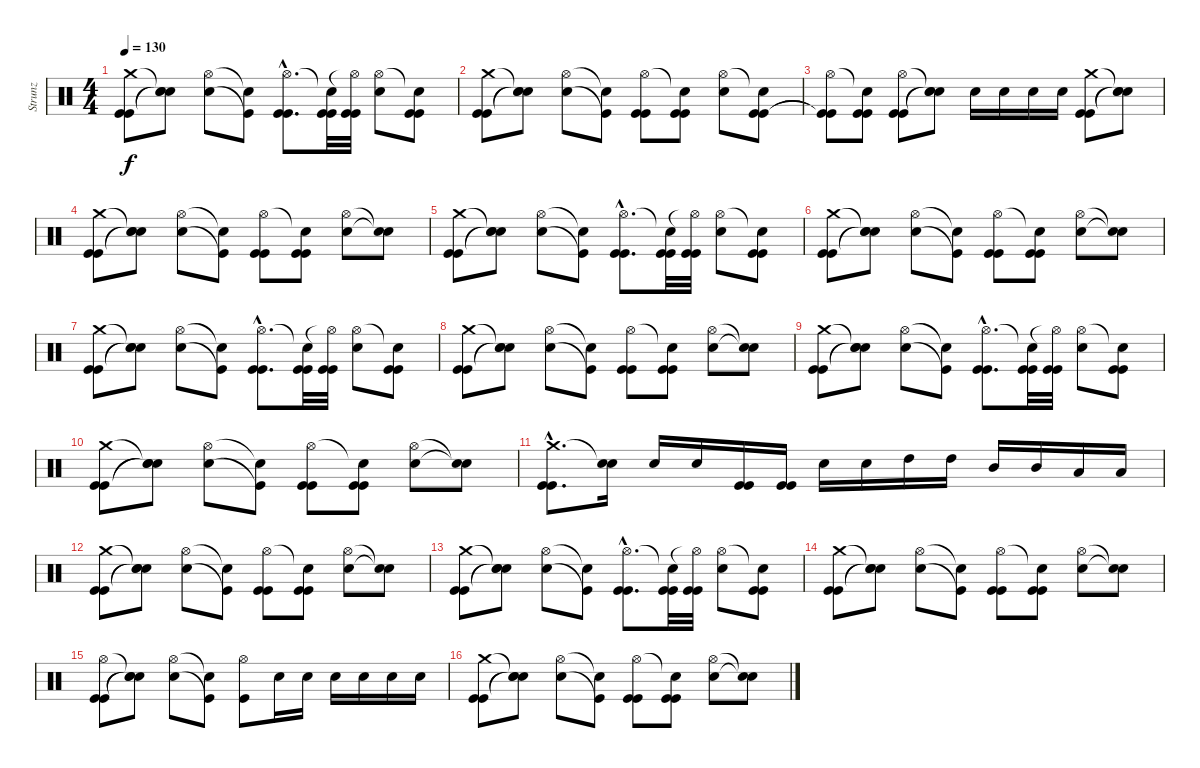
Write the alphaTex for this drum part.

\track ("Strunz" "Strunz") {instrument percussion}
\staff {score}
\articulation defaults
\ts (4 4)
\tempo 130
\clef neutral
\ks c
("Crash medium (hit)" "Kick (hit)" "Kick (hit)").8{dy f} ("Snare (hit)"{t} "Electric Snare (hit)"{t} "Snare (hit)"{t}).8 ("Hi-Hat (open)" "Electric Snare (hit)").8 ("Snare (hit)"{t} "Kick (hit)"{t}).8 ("Hi-Hat (open)"{hac} "Kick (hit)"{hac} "Kick (hit)"{hac}).8{d} ("Snare (hit)"{t} "Kick (hit)" "Kick (hit)").32 ("Hi-Hat (open)"{t} "Kick (hit)" "Kick (hit)").32 ("Hi-Hat (open)" "Electric Snare (hit)").8 ("Snare (hit)"{t} "Kick (hit)" "Kick (hit)").8 |
("Crash medium (hit)" "Kick (hit)" "Kick (hit)").8 ("Snare (hit)"{t} "Electric Snare (hit)"{t} "Snare (hit)"{t}).8 ("Hi-Hat (open)" "Electric Snare (hit)").8 ("Snare (hit)"{t} "Kick (hit)"{t}).8 ("Hi-Hat (open)" "Kick (hit)" "Kick (hit)").8 ("Snare (hit)"{t} "Kick (hit)" "Kick (hit)").8 ("Hi-Hat (open)" "Electric Snare (hit)").8 ("Snare (hit)"{t} "Kick (hit)" "Kick (hit)").8 |
("Hi-Hat (open)" "Kick (hit)"{t} "Kick (hit)"{t}).8 ("Snare (hit)"{t} "Kick (hit)" "Kick (hit)").8 ("Hi-Hat (open)" "Kick (hit)" "Kick (hit)").8 ("Snare (hit)"{t} "Snare (hit)"{t} "Snare (hit)"{t}).8 "Electric Snare (hit)".16 "Electric Snare (hit)".16 "Electric Snare (hit)".16 "Electric Snare (hit)".16 ("Crash medium (hit)" "Kick (hit)" "Kick (hit)").8 ("Snare (hit)"{t} "Snare (hit)"{t} "Snare (hit)"{t}).8 |
("Crash medium (hit)" "Kick (hit)" "Kick (hit)").8 ("Snare (hit)"{t} "Electric Snare (hit)"{t} "Snare (hit)"{t}).8 ("Hi-Hat (open)" "Electric Snare (hit)").8 ("Snare (hit)"{t} "Kick (hit)"{t}).8 ("Hi-Hat (open)" "Kick (hit)" "Kick (hit)").8 ("Snare (hit)"{t} "Kick (hit)" "Kick (hit)").8 ("Hi-Hat (open)" "Electric Snare (hit)").8 ("Snare (hit)"{t} "Snare (hit)"{t}).8 |
("Crash medium (hit)" "Kick (hit)" "Kick (hit)").8 ("Snare (hit)"{t} "Electric Snare (hit)"{t} "Snare (hit)"{t}).8 ("Hi-Hat (open)" "Electric Snare (hit)").8 ("Snare (hit)"{t} "Kick (hit)"{t}).8 ("Hi-Hat (open)"{hac} "Kick (hit)"{hac} "Kick (hit)"{hac}).8{d} ("Snare (hit)"{t} "Kick (hit)" "Kick (hit)").32 ("Hi-Hat (open)"{t} "Kick (hit)" "Kick (hit)").32 ("Hi-Hat (open)" "Electric Snare (hit)").8 ("Snare (hit)"{t} "Kick (hit)" "Kick (hit)").8 |
("Crash medium (hit)" "Kick (hit)" "Kick (hit)").8 ("Snare (hit)"{t} "Electric Snare (hit)"{t} "Snare (hit)"{t}).8 ("Hi-Hat (open)" "Electric Snare (hit)").8 ("Snare (hit)"{t} "Kick (hit)"{t}).8 ("Hi-Hat (open)" "Kick (hit)" "Kick (hit)").8 ("Snare (hit)"{t} "Kick (hit)" "Kick (hit)").8 ("Hi-Hat (open)" "Electric Snare (hit)").8 ("Snare (hit)"{t} "Snare (hit)"{t}).8 |
("Crash medium (hit)" "Kick (hit)" "Kick (hit)").8 ("Snare (hit)"{t} "Electric Snare (hit)"{t} "Snare (hit)"{t}).8 ("Hi-Hat (open)" "Electric Snare (hit)").8 ("Snare (hit)"{t} "Kick (hit)"{t}).8 ("Hi-Hat (open)"{hac} "Kick (hit)"{hac} "Kick (hit)"{hac}).8{d} ("Snare (hit)"{t} "Kick (hit)" "Kick (hit)").32 ("Hi-Hat (open)"{t} "Kick (hit)" "Kick (hit)").32 ("Hi-Hat (open)" "Electric Snare (hit)").8 ("Snare (hit)"{t} "Kick (hit)" "Kick (hit)").8 |
("Crash medium (hit)" "Kick (hit)" "Kick (hit)").8 ("Snare (hit)"{t} "Electric Snare (hit)"{t} "Snare (hit)"{t}).8 ("Hi-Hat (open)" "Electric Snare (hit)").8 ("Snare (hit)"{t} "Kick (hit)"{t}).8 ("Hi-Hat (open)" "Kick (hit)" "Kick (hit)").8 ("Snare (hit)"{t} "Kick (hit)" "Kick (hit)").8 ("Hi-Hat (open)" "Electric Snare (hit)").8 ("Snare (hit)"{t} "Snare (hit)"{t}).8 |
("Crash medium (hit)" "Kick (hit)" "Kick (hit)").8 ("Snare (hit)"{t} "Electric Snare (hit)"{t} "Snare (hit)"{t}).8 ("Hi-Hat (open)" "Electric Snare (hit)").8 ("Snare (hit)"{t} "Kick (hit)"{t}).8 ("Hi-Hat (open)"{hac} "Kick (hit)"{hac} "Kick (hit)"{hac}).8{d} ("Snare (hit)"{t} "Kick (hit)" "Kick (hit)").32 ("Hi-Hat (open)"{t} "Kick (hit)" "Kick (hit)").32 ("Hi-Hat (open)" "Electric Snare (hit)").8 ("Snare (hit)"{t} "Kick (hit)" "Kick (hit)").8 |
("Crash medium (hit)" "Kick (hit)" "Kick (hit)").8 ("Snare (hit)"{t} "Electric Snare (hit)"{t} "Snare (hit)"{t}).8 ("Hi-Hat (open)" "Electric Snare (hit)").8 ("Snare (hit)"{t} "Kick (hit)"{t}).8 ("Hi-Hat (open)" "Kick (hit)" "Kick (hit)").8 ("Snare (hit)"{t} "Kick (hit)" "Kick (hit)").8 ("Hi-Hat (open)" "Electric Snare (hit)").8 ("Snare (hit)"{t} "Snare (hit)"{t}).8 |
("Crash medium (hit)"{hac} "Kick (hit)"{hac} "Kick (hit)"{hac}).8{d} ("Snare (hit)"{t} "Electric Snare (hit)").16 "Electric Snare (hit)".16 "Electric Snare (hit)".16 ("Kick (hit)" "Kick (hit)").16 ("Kick (hit)" "Kick (hit)").16 "Electric Snare (hit)".16 "Electric Snare (hit)".16 "High Tom (hit)".16 "High Tom (hit)".16 "Mid Tom (hit)".16 "Mid Tom (hit)".16 "Low Tom (hit)".16 "Low Tom (hit)".16 |
("Crash medium (hit)" "Kick (hit)" "Kick (hit)").8 ("Snare (hit)"{t} "Electric Snare (hit)"{t} "Snare (hit)"{t}).8 ("Hi-Hat (open)" "Electric Snare (hit)").8 ("Snare (hit)"{t} "Kick (hit)"{t}).8 ("Hi-Hat (open)" "Kick (hit)" "Kick (hit)").8 ("Snare (hit)"{t} "Kick (hit)" "Kick (hit)").8 ("Hi-Hat (open)" "Electric Snare (hit)").8 ("Snare (hit)"{t} "Snare (hit)"{t}).8 |
("Crash medium (hit)" "Kick (hit)" "Kick (hit)").8 ("Snare (hit)"{t} "Electric Snare (hit)"{t} "Snare (hit)"{t}).8 ("Hi-Hat (open)" "Electric Snare (hit)").8 ("Snare (hit)"{t} "Kick (hit)"{t}).8 ("Hi-Hat (open)"{hac} "Kick (hit)"{hac} "Kick (hit)"{hac}).8{d} ("Snare (hit)"{t} "Kick (hit)" "Kick (hit)").32 ("Hi-Hat (open)"{t} "Kick (hit)" "Kick (hit)").32 ("Hi-Hat (open)" "Electric Snare (hit)").8 ("Snare (hit)"{t} "Kick (hit)" "Kick (hit)").8 |
("Crash medium (hit)" "Kick (hit)" "Kick (hit)").8 ("Snare (hit)"{t} "Electric Snare (hit)"{t} "Snare (hit)"{t}).8 ("Hi-Hat (open)" "Electric Snare (hit)").8 ("Snare (hit)"{t} "Kick (hit)"{t}).8 ("Hi-Hat (open)" "Kick (hit)" "Kick (hit)").8 ("Snare (hit)"{t} "Kick (hit)" "Kick (hit)").8 ("Hi-Hat (open)" "Electric Snare (hit)").8 ("Snare (hit)"{t} "Snare (hit)"{t}).8 |
("Hi-Hat (open)" "Kick (hit)" "Kick (hit)").8 ("Snare (hit)"{t} "Snare (hit)"{t} "Snare (hit)"{t}).8 ("Hi-Hat (open)" "Electric Snare (hit)").8 ("Snare (hit)"{t} "Kick (hit)"{t}).8 ("Hi-Hat (open)" "Kick (hit)").8 "Electric Snare (hit)".16 "Electric Snare (hit)".16 "Electric Snare (hit)".16 "Electric Snare (hit)".16 "Electric Snare (hit)".16 "Electric Snare (hit)".16 |
("Crash medium (hit)" "Kick (hit)" "Kick (hit)").8 ("Snare (hit)"{t} "Electric Snare (hit)"{t} "Snare (hit)"{t}).8 ("Hi-Hat (open)" "Electric Snare (hit)").8 ("Snare (hit)"{t} "Kick (hit)"{t}).8 ("Hi-Hat (open)" "Kick (hit)" "Kick (hit)").8 ("Snare (hit)"{t} "Kick (hit)" "Kick (hit)").8 ("Hi-Hat (open)" "Electric Snare (hit)").8 ("Snare (hit)"{t} "Snare (hit)"{t}).8
